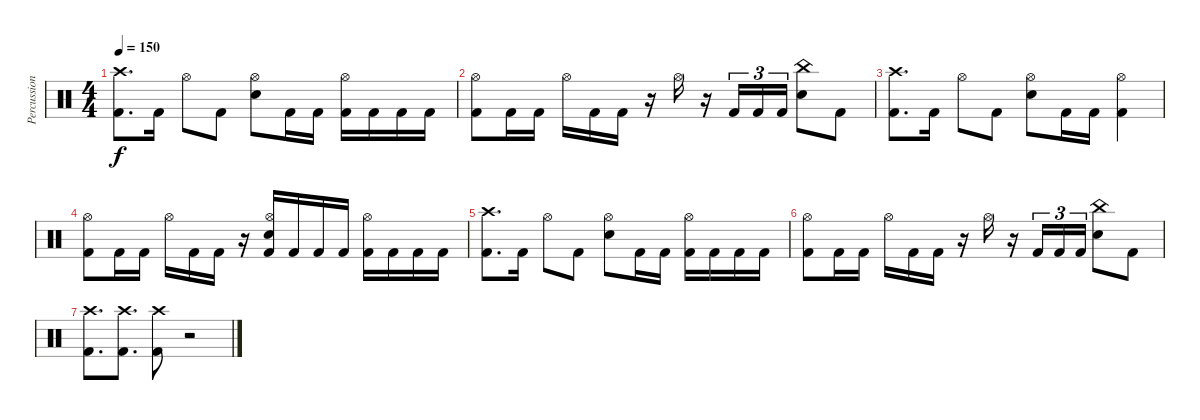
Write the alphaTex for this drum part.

\track ("Percussion" "Percussion") {instrument percussion}
\staff {score}
\articulation defaults
\ts (4 4)
\tempo 150
\clef neutral
\ks c
("Crash high (hit)" "Kick (hit) 2").8{d dy f} "Kick (hit) 2".16 "Hi-Hat (open)".8 "Kick (hit) 2".8 ("Hi-Hat (open)" "Electric Snare (hit)").8 "Kick (hit) 2".16 "Kick (hit) 2".16 ("Hi-Hat (open)" "Kick (hit) 2").16 "Kick (hit) 2".16 "Kick (hit) 2".16 "Kick (hit) 2".16 |
("Hi-Hat (open)" "Kick (hit) 2").8 "Kick (hit) 2".16 "Kick (hit) 2".16 "Hi-Hat (open)".16 "Kick (hit) 2".16 "Kick (hit) 2".16 r.16 "Hi-Hat (open)".16 r.16 "Kick (hit) 2".16{tu (3 2)} "Kick (hit) 2".16{tu (3 2)} "Kick (hit) 2".16{tu (3 2)} ("China (hit)" "Electric Snare (hit)").8 "Kick (hit) 2".8 |
("Crash high (hit)" "Kick (hit) 2").8{d} "Kick (hit) 2".16 "Hi-Hat (open)".8 "Kick (hit) 2".8 ("Hi-Hat (open)" "Electric Snare (hit)").8 "Kick (hit) 2".16 "Kick (hit) 2".16 ("Hi-Hat (open)" "Kick (hit) 2").4 |
("Hi-Hat (open)" "Kick (hit) 2").8 "Kick (hit) 2".16 "Kick (hit) 2".16 "Hi-Hat (open)".16 "Kick (hit) 2".16 "Kick (hit) 2".16 r.16 ("Hi-Hat (open)" "Electric Snare (hit)" "Kick (hit) 2").16 "Kick (hit) 2".16 "Kick (hit) 2".16 "Kick (hit) 2".16 ("Hi-Hat (open)" "Kick (hit) 2").16 "Kick (hit) 2".16 "Kick (hit) 2".16 "Kick (hit) 2".16 |
("Crash high (hit)" "Kick (hit) 2").8{d} "Kick (hit) 2".16 "Hi-Hat (open)".8 "Kick (hit) 2".8 ("Hi-Hat (open)" "Electric Snare (hit)").8 "Kick (hit) 2".16 "Kick (hit) 2".16 ("Hi-Hat (open)" "Kick (hit) 2").16 "Kick (hit) 2".16 "Kick (hit) 2".16 "Kick (hit) 2".16 |
("Hi-Hat (open)" "Kick (hit) 2").8 "Kick (hit) 2".16 "Kick (hit) 2".16 "Hi-Hat (open)".16 "Kick (hit) 2".16 "Kick (hit) 2".16 r.16 "Hi-Hat (open)".16 r.16 "Kick (hit) 2".16{tu (3 2)} "Kick (hit) 2".16{tu (3 2)} "Kick (hit) 2".16{tu (3 2)} ("China (hit)" "Electric Snare (hit)").8 "Kick (hit) 2".8 |
("Crash high (hit)" "Kick (hit) 2").8{d} ("Crash high (hit)" "Kick (hit) 2").8{d} ("Crash high (hit)" "Kick (hit) 2").8 r.2
